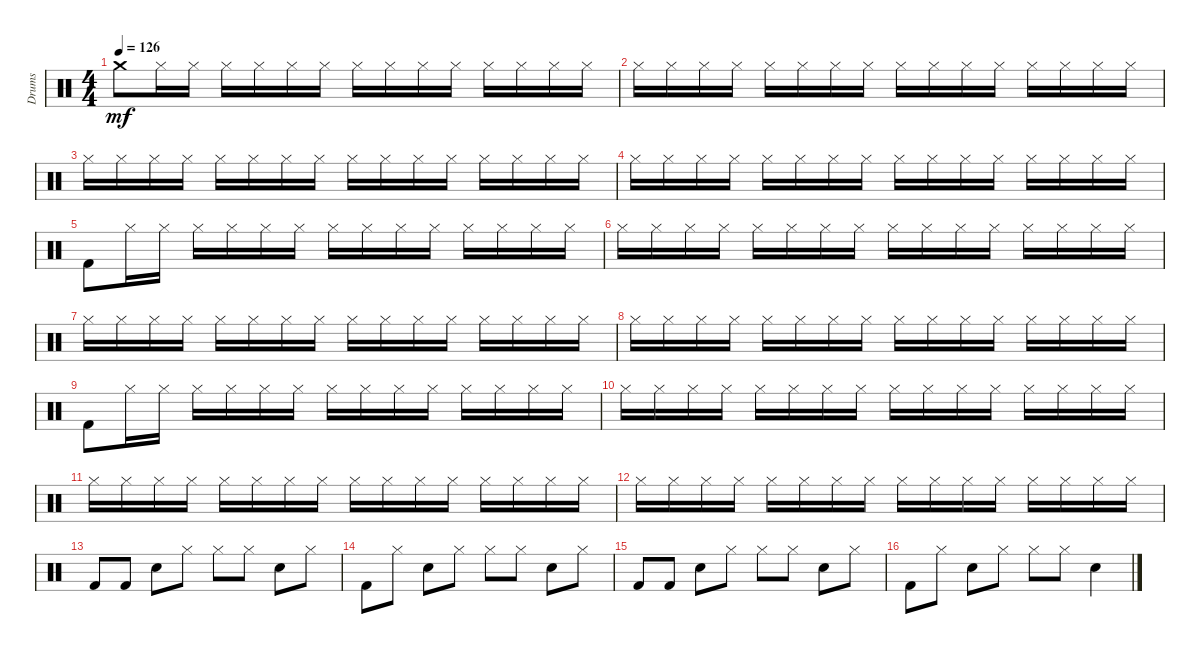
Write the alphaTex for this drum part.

\track ("Drums" "Drums") {instrument percussion}
\staff {score}
\articulation defaults
\ts (4 4)
\tempo 126
\clef neutral
\ks c "Crash medium (hit)".8{dy mf} "Hi-Hat (closed)".16 "Hi-Hat (closed)".16 "Hi-Hat (closed)".16 "Hi-Hat (closed)".16 "Hi-Hat (closed)".16 "Hi-Hat (closed)".16 "Hi-Hat (closed)".16 "Hi-Hat (closed)".16 "Hi-Hat (closed)".16 "Hi-Hat (closed)".16 "Hi-Hat (closed)".16 "Hi-Hat (closed)".16 "Hi-Hat (closed)".16 "Hi-Hat (closed)".16
|
"Hi-Hat (closed)".16 "Hi-Hat (closed)".16 "Hi-Hat (closed)".16 "Hi-Hat (closed)".16 "Hi-Hat (closed)".16 "Hi-Hat (closed)".16 "Hi-Hat (closed)".16 "Hi-Hat (closed)".16 "Hi-Hat (closed)".16 "Hi-Hat (closed)".16 "Hi-Hat (closed)".16 "Hi-Hat (closed)".16 "Hi-Hat (closed)".16 "Hi-Hat (closed)".16 "Hi-Hat (closed)".16 "Hi-Hat (closed)".16 |
"Hi-Hat (closed)".16 "Hi-Hat (closed)".16 "Hi-Hat (closed)".16 "Hi-Hat (closed)".16 "Hi-Hat (closed)".16 "Hi-Hat (closed)".16 "Hi-Hat (closed)".16 "Hi-Hat (closed)".16 "Hi-Hat (closed)".16 "Hi-Hat (closed)".16 "Hi-Hat (closed)".16 "Hi-Hat (closed)".16 "Hi-Hat (closed)".16 "Hi-Hat (closed)".16 "Hi-Hat (closed)".16 "Hi-Hat (closed)".16 |
"Hi-Hat (closed)".16 "Hi-Hat (closed)".16 "Hi-Hat (closed)".16 "Hi-Hat (closed)".16 "Hi-Hat (closed)".16 "Hi-Hat (closed)".16 "Hi-Hat (closed)".16 "Hi-Hat (closed)".16 "Hi-Hat (closed)".16 "Hi-Hat (closed)".16 "Hi-Hat (closed)".16 "Hi-Hat (closed)".16 "Hi-Hat (closed)".16 "Hi-Hat (closed)".16 "Hi-Hat (closed)".16 "Hi-Hat (closed)".16 |
"Kick (hit) 2".8 "Hi-Hat (closed)".16 "Hi-Hat (closed)".16 "Hi-Hat (closed)".16 "Hi-Hat (closed)".16 "Hi-Hat (closed)".16 "Hi-Hat (closed)".16 "Hi-Hat (closed)".16 "Hi-Hat (closed)".16 "Hi-Hat (closed)".16 "Hi-Hat (closed)".16 "Hi-Hat (closed)".16 "Hi-Hat (closed)".16 "Hi-Hat (closed)".16 "Hi-Hat (closed)".16 |
"Hi-Hat (closed)".16 "Hi-Hat (closed)".16 "Hi-Hat (closed)".16 "Hi-Hat (closed)".16 "Hi-Hat (closed)".16 "Hi-Hat (closed)".16 "Hi-Hat (closed)".16 "Hi-Hat (closed)".16 "Hi-Hat (closed)".16 "Hi-Hat (closed)".16 "Hi-Hat (closed)".16 "Hi-Hat (closed)".16 "Hi-Hat (closed)".16 "Hi-Hat (closed)".16 "Hi-Hat (closed)".16 "Hi-Hat (closed)".16 |
"Hi-Hat (closed)".16 "Hi-Hat (closed)".16 "Hi-Hat (closed)".16 "Hi-Hat (closed)".16 "Hi-Hat (closed)".16 "Hi-Hat (closed)".16 "Hi-Hat (closed)".16 "Hi-Hat (closed)".16 "Hi-Hat (closed)".16 "Hi-Hat (closed)".16 "Hi-Hat (closed)".16 "Hi-Hat (closed)".16 "Hi-Hat (closed)".16 "Hi-Hat (closed)".16 "Hi-Hat (closed)".16 "Hi-Hat (closed)".16 |
"Hi-Hat (closed)".16 "Hi-Hat (closed)".16 "Hi-Hat (closed)".16 "Hi-Hat (closed)".16 "Hi-Hat (closed)".16 "Hi-Hat (closed)".16 "Hi-Hat (closed)".16 "Hi-Hat (closed)".16 "Hi-Hat (closed)".16 "Hi-Hat (closed)".16 "Hi-Hat (closed)".16 "Hi-Hat (closed)".16 "Hi-Hat (closed)".16 "Hi-Hat (closed)".16 "Hi-Hat (closed)".16 "Hi-Hat (closed)".16 |
"Kick (hit) 2".8 "Hi-Hat (closed)".16 "Hi-Hat (closed)".16 "Hi-Hat (closed)".16 "Hi-Hat (closed)".16 "Hi-Hat (closed)".16 "Hi-Hat (closed)".16 "Hi-Hat (closed)".16 "Hi-Hat (closed)".16 "Hi-Hat (closed)".16 "Hi-Hat (closed)".16 "Hi-Hat (closed)".16 "Hi-Hat (closed)".16 "Hi-Hat (closed)".16 "Hi-Hat (closed)".16 |
"Hi-Hat (closed)".16 "Hi-Hat (closed)".16 "Hi-Hat (closed)".16 "Hi-Hat (closed)".16 "Hi-Hat (closed)".16 "Hi-Hat (closed)".16 "Hi-Hat (closed)".16 "Hi-Hat (closed)".16 "Hi-Hat (closed)".16 "Hi-Hat (closed)".16 "Hi-Hat (closed)".16 "Hi-Hat (closed)".16 "Hi-Hat (closed)".16 "Hi-Hat (closed)".16 "Hi-Hat (closed)".16 "Hi-Hat (closed)".16 |
"Hi-Hat (closed)".16 "Hi-Hat (closed)".16 "Hi-Hat (closed)".16 "Hi-Hat (closed)".16 "Hi-Hat (closed)".16 "Hi-Hat (closed)".16 "Hi-Hat (closed)".16 "Hi-Hat (closed)".16 "Hi-Hat (closed)".16 "Hi-Hat (closed)".16 "Hi-Hat (closed)".16 "Hi-Hat (closed)".16 "Hi-Hat (closed)".16 "Hi-Hat (closed)".16 "Hi-Hat (closed)".16 "Hi-Hat (closed)".16 |
"Hi-Hat (closed)".16 "Hi-Hat (closed)".16 "Hi-Hat (closed)".16 "Hi-Hat (closed)".16 "Hi-Hat (closed)".16 "Hi-Hat (closed)".16 "Hi-Hat (closed)".16 "Hi-Hat (closed)".16 "Hi-Hat (closed)".16 "Hi-Hat (closed)".16 "Hi-Hat (closed)".16 "Hi-Hat (closed)".16 "Hi-Hat (closed)".16 "Hi-Hat (closed)".16 "Hi-Hat (closed)".16 "Hi-Hat (closed)".16 |
"Kick (hit) 2".8 "Kick (hit) 2".8 "Snare (hit) 2".8 "Hi-Hat (closed)".8 "Hi-Hat (closed)".8 "Hi-Hat (closed)".8 "Snare (hit) 2".8 "Hi-Hat (closed)".8 |
"Kick (hit) 2".8 "Hi-Hat (closed)".8 "Snare (hit) 2".8 "Hi-Hat (closed)".8 "Hi-Hat (closed)".8 "Hi-Hat (closed)".8 "Snare (hit) 2".8 "Hi-Hat (closed)".8 |
"Kick (hit) 2".8 "Kick (hit) 2".8 "Snare (hit) 2".8 "Hi-Hat (closed)".8 "Hi-Hat (closed)".8 "Hi-Hat (closed)".8 "Snare (hit) 2".8 "Hi-Hat (closed)".8 |
"Kick (hit) 2".8 "Hi-Hat (closed)".8 "Snare (hit) 2".8 "Hi-Hat (closed)".8 "Hi-Hat (closed)".8 "Hi-Hat (closed)".8 "Snare (hit) 2".4
